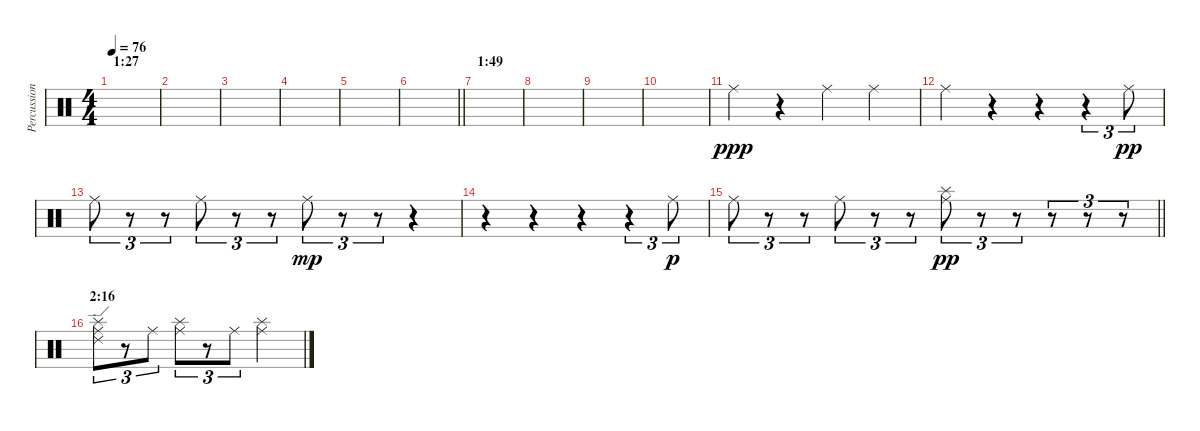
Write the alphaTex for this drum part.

\track ("Percussions" "Percussion") {instrument percussion}
\staff {score}
\articulation defaults
\ts (4 4)
\section ("" "1:27")
\tempo 76
\clef neutral
\ks c
|
|
|
|
|
\barLineRight lightlight
|
\section ("" "1:49")
|
|
|
|
"Ride (middle)".4{dy ppp} r.4 "Ride (middle)".4 "Ride (middle)".4 |
"Ride (middle)".4 r.4 r.4 r.4{tu (3 2)} "Ride (middle)".8{tu (3 2) dy pp} |
"Ride (middle)".8{tu (3 2)} r.8{tu (3 2)} r.8{tu (3 2)} "Ride (middle)".8{tu (3 2)} r.8{tu (3 2)} r.8{tu (3 2)} "Ride (middle)".8{tu (3 2) dy mp} r.8{tu (3 2)} r.8{tu (3 2)} r.4 |
r.4 r.4 r.4 r.4{tu (3 2)} "Ride (middle)".8{tu (3 2) dy p} |
\barLineRight lightlight "Ride (middle)".8{tu (3 2)}
r.8{tu (3 2)} r.8{tu (3 2)} "Ride (middle)".8{tu (3 2)} r.8{tu (3 2)} r.8{tu (3 2)} ("Ride (middle)" "Splash (hit)").8{tu (3 2) dy pp} r.8{tu (3 2)} r.8{tu (3 2)} r.8{tu (3 2)} r.8{tu (3 2)} r.8{tu (3 2)} |
\section ("" "2:16")
("Ride (edge) 2" "Ride (middle)" "Splash (hit)").8{tu (3 2) bd 480} r.8{tu (3 2)} "Ride (middle)".8{tu (3 2)} ("Splash (hit)" "Ride (middle)").8{tu (3 2)} r.8{tu (3 2)} "Ride (middle)".8{tu (3 2)} ("Ride (middle)" "Splash (hit)").2
